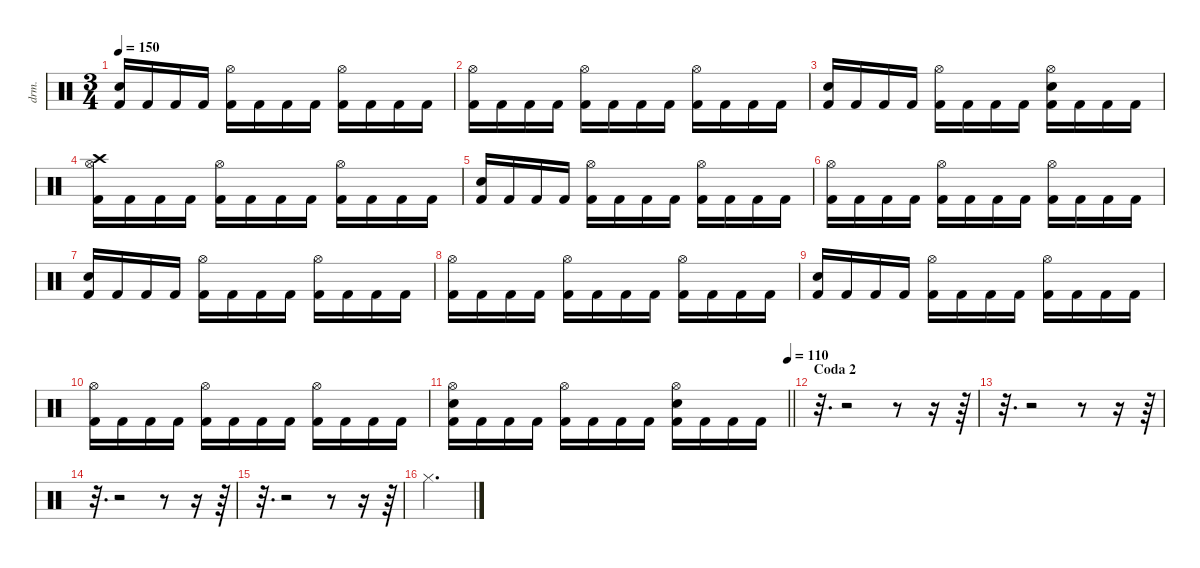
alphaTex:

\defaultSystemsLayout 4
\hideDynamics
\bracketExtendMode nobrackets
\otherSystemsTrackNameOrientation horizontal
\track ("Drums" "drm.") {instrument percussion}
\staff {score}
\articulation defaults
\ts (3 4)
\tempo 150
\clef neutral
\ks c
("Snare (hit) 2" "Kick (hit) 2").16{dy f} "Kick (hit) 2".16 "Kick (hit) 2".16 "Kick (hit) 2".16 ("Hi-Hat (open)" "Kick (hit) 2").16 "Kick (hit) 2".16 "Kick (hit) 2".16 "Kick (hit) 2".16 ("Hi-Hat (open)" "Kick (hit) 2").16 "Kick (hit) 2".16 "Kick (hit) 2".16 "Kick (hit) 2".16 |
("Hi-Hat (open)" "Kick (hit) 2").16 "Kick (hit) 2".16 "Kick (hit) 2".16 "Kick (hit) 2".16 ("Hi-Hat (open)" "Kick (hit) 2").16 "Kick (hit) 2".16 "Kick (hit) 2".16 "Kick (hit) 2".16 ("Hi-Hat (open)" "Kick (hit) 2").16 "Kick (hit) 2".16 "Kick (hit) 2".16 "Kick (hit) 2".16 |
("Snare (hit) 2" "Kick (hit) 2").16 "Kick (hit) 2".16 "Kick (hit) 2".16 "Kick (hit) 2".16 ("Hi-Hat (open)" "Kick (hit) 2").16 "Kick (hit) 2".16 "Kick (hit) 2".16 "Kick (hit) 2".16 ("Snare (hit) 2" "Hi-Hat (open)" "Kick (hit) 2").16 "Kick (hit) 2".16 "Kick (hit) 2".16 "Kick (hit) 2".16 |
("Crash high (hit)" "Hi-Hat (open)" "Kick (hit) 2").16 "Kick (hit) 2".16 "Kick (hit) 2".16 "Kick (hit) 2".16 ("Hi-Hat (open)" "Kick (hit) 2").16 "Kick (hit) 2".16 "Kick (hit) 2".16 "Kick (hit) 2".16 ("Hi-Hat (open)" "Kick (hit) 2").16 "Kick (hit) 2".16 "Kick (hit) 2".16 "Kick (hit) 2".16 |
("Snare (hit) 2" "Kick (hit) 2").16 "Kick (hit) 2".16 "Kick (hit) 2".16 "Kick (hit) 2".16 ("Hi-Hat (open)" "Kick (hit) 2").16 "Kick (hit) 2".16 "Kick (hit) 2".16 "Kick (hit) 2".16 ("Hi-Hat (open)" "Kick (hit) 2").16 "Kick (hit) 2".16 "Kick (hit) 2".16 "Kick (hit) 2".16 |
("Hi-Hat (open)" "Kick (hit) 2").16 "Kick (hit) 2".16 "Kick (hit) 2".16 "Kick (hit) 2".16 ("Hi-Hat (open)" "Kick (hit) 2").16 "Kick (hit) 2".16 "Kick (hit) 2".16 "Kick (hit) 2".16 ("Hi-Hat (open)" "Kick (hit) 2").16 "Kick (hit) 2".16 "Kick (hit) 2".16 "Kick (hit) 2".16 |
("Snare (hit) 2" "Kick (hit) 2").16 "Kick (hit) 2".16 "Kick (hit) 2".16 "Kick (hit) 2".16 ("Hi-Hat (open)" "Kick (hit) 2").16 "Kick (hit) 2".16 "Kick (hit) 2".16 "Kick (hit) 2".16 ("Hi-Hat (open)" "Kick (hit) 2").16 "Kick (hit) 2".16 "Kick (hit) 2".16 "Kick (hit) 2".16 |
("Hi-Hat (open)" "Kick (hit) 2").16 "Kick (hit) 2".16 "Kick (hit) 2".16 "Kick (hit) 2".16 ("Hi-Hat (open)" "Kick (hit) 2").16 "Kick (hit) 2".16 "Kick (hit) 2".16 "Kick (hit) 2".16 ("Hi-Hat (open)" "Kick (hit) 2").16 "Kick (hit) 2".16 "Kick (hit) 2".16 "Kick (hit) 2".16 |
("Snare (hit) 2" "Kick (hit) 2").16 "Kick (hit) 2".16 "Kick (hit) 2".16 "Kick (hit) 2".16 ("Hi-Hat (open)" "Kick (hit) 2").16 "Kick (hit) 2".16 "Kick (hit) 2".16 "Kick (hit) 2".16 ("Hi-Hat (open)" "Kick (hit) 2").16 "Kick (hit) 2".16 "Kick (hit) 2".16 "Kick (hit) 2".16 |
("Hi-Hat (open)" "Kick (hit) 2").16 "Kick (hit) 2".16 "Kick (hit) 2".16 "Kick (hit) 2".16 ("Hi-Hat (open)" "Kick (hit) 2").16 "Kick (hit) 2".16 "Kick (hit) 2".16 "Kick (hit) 2".16 ("Hi-Hat (open)" "Kick (hit) 2").16 "Kick (hit) 2".16 "Kick (hit) 2".16 "Kick (hit) 2".16 |
\tempo (110 1)
\barLineRight lightlight
("Snare (hit) 2" "Hi-Hat (open)" "Kick (hit) 2").16 "Kick (hit) 2".16 "Kick (hit) 2".16 "Kick (hit) 2".16 ("Hi-Hat (open)" "Kick (hit) 2").16 "Kick (hit) 2".16 "Kick (hit) 2".16 "Kick (hit) 2".16 ("Snare (hit) 2" "Hi-Hat (open)" "Kick (hit) 2").16 "Kick (hit) 2".16 "Kick (hit) 2".16 "Kick (hit) 2".16 |
\section ("" "Coda 2")
r.32{d} r.2 r.8 r.16 r.64 |
r.32{d} r.2 r.8 r.16 r.64 |
r.32{d} r.2 r.8 r.16 r.64 |
r.32{d} r.2 r.8 r.16 r.64 |
"Hi-Hat (closed)".2{d}
